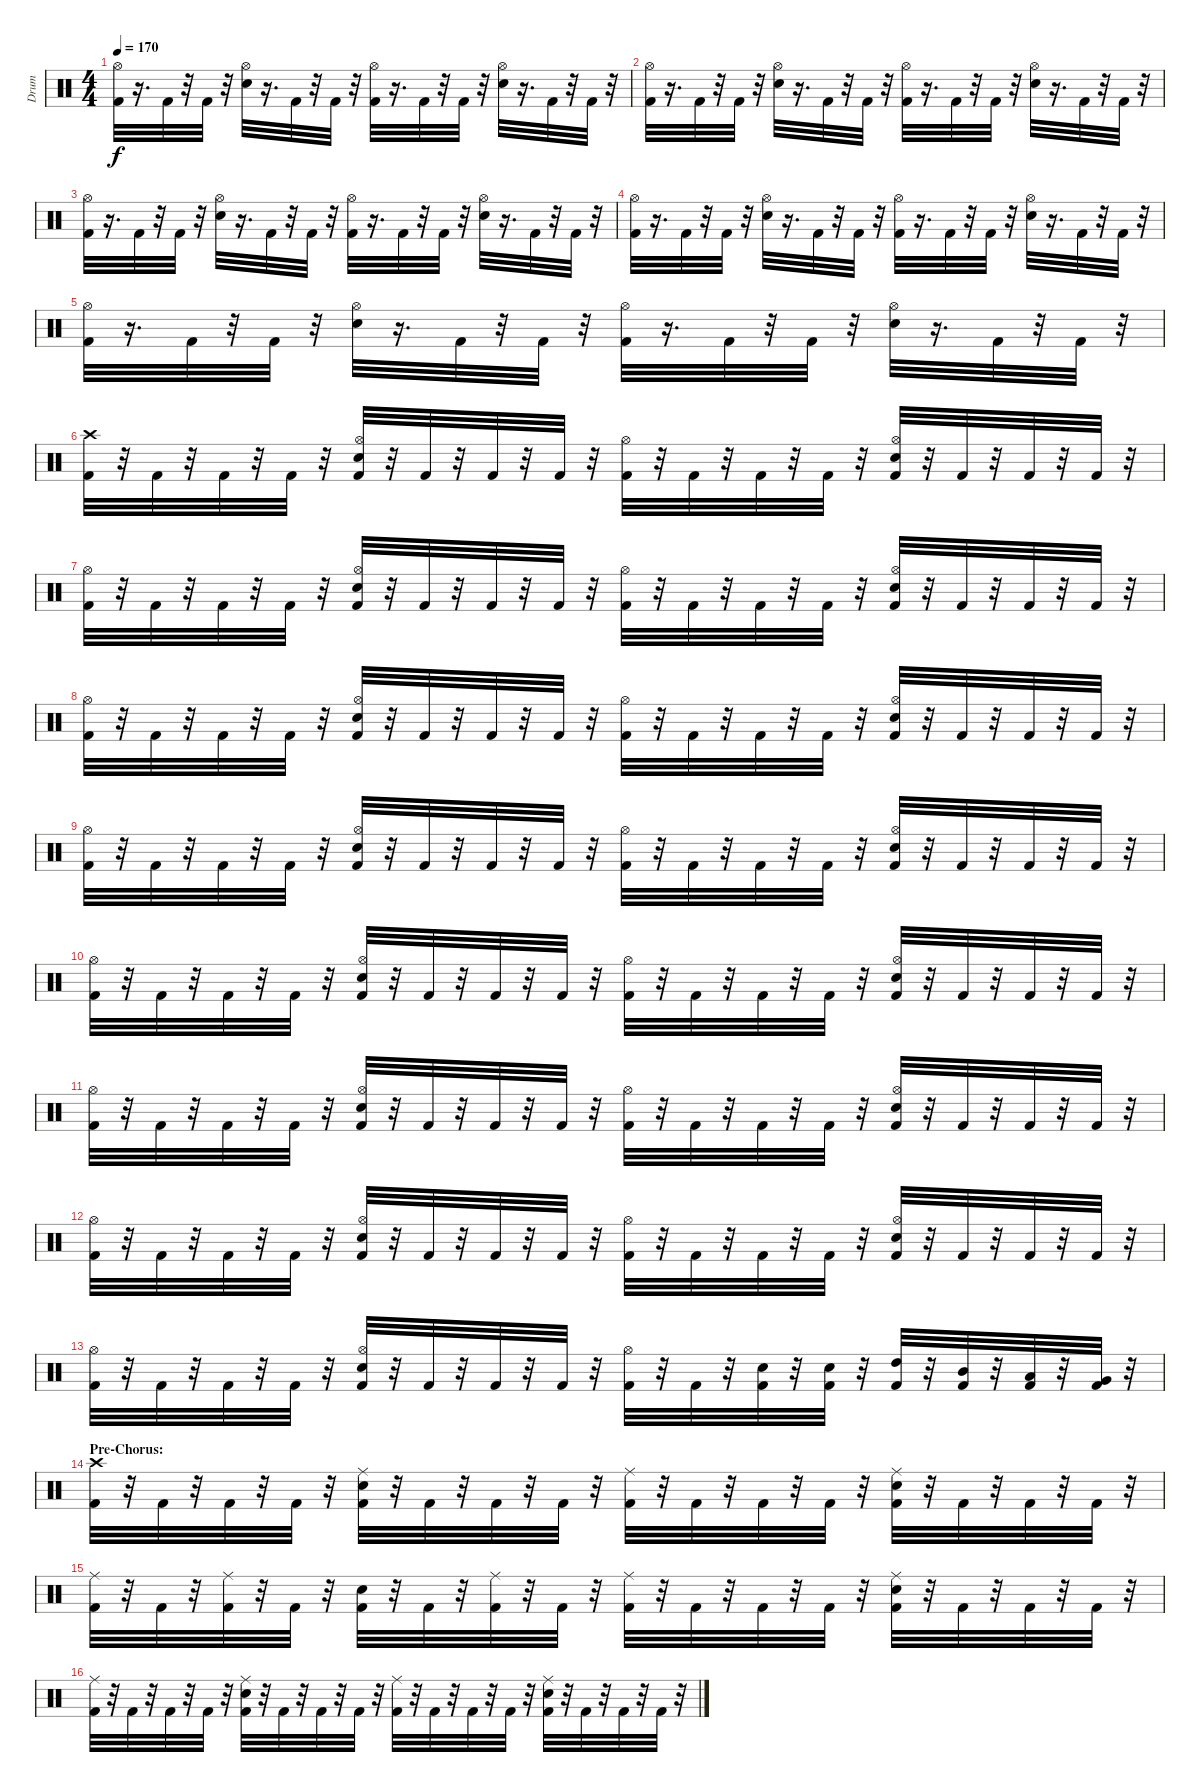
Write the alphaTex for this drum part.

\track ("Drum" "Drum") {instrument percussion}
\staff {score}
\articulation defaults
\ts (4 4)
\tempo 170
\clef neutral
\ks c
("Kick (hit) 2" "Hi-Hat (open)").32{dy f} r.16{d} "Kick (hit) 2".32 r.32 "Kick (hit) 2".32 r.32 ("Snare (hit) 2" "Hi-Hat (open)").32 r.16{d} "Kick (hit) 2".32 r.32 "Kick (hit) 2".32 r.32 ("Kick (hit) 2" "Hi-Hat (open)").32 r.16{d} "Kick (hit) 2".32 r.32 "Kick (hit) 2".32 r.32 ("Snare (hit) 2" "Hi-Hat (open)").32 r.16{d} "Kick (hit) 2".32 r.32 "Kick (hit) 2".32 r.32 |
("Hi-Hat (open)" "Kick (hit) 2").32 r.16{d} "Kick (hit) 2".32 r.32 "Kick (hit) 2".32 r.32 ("Snare (hit) 2" "Hi-Hat (open)").32 r.16{d} "Kick (hit) 2".32 r.32 "Kick (hit) 2".32 r.32 ("Kick (hit) 2" "Hi-Hat (open)").32 r.16{d} "Kick (hit) 2".32 r.32 "Kick (hit) 2".32 r.32 ("Snare (hit) 2" "Hi-Hat (open)").32 r.16{d} "Kick (hit) 2".32 r.32 "Kick (hit) 2".32 r.32 |
("Kick (hit) 2" "Hi-Hat (open)").32 r.16{d} "Kick (hit) 2".32 r.32 "Kick (hit) 2".32 r.32 ("Snare (hit) 2" "Hi-Hat (open)").32 r.16{d} "Kick (hit) 2".32 r.32 "Kick (hit) 2".32 r.32 ("Kick (hit) 2" "Hi-Hat (open)").32 r.16{d} "Kick (hit) 2".32 r.32 "Kick (hit) 2".32 r.32 ("Snare (hit) 2" "Hi-Hat (open)").32 r.16{d} "Kick (hit) 2".32 r.32 "Kick (hit) 2".32 r.32 |
("Hi-Hat (open)" "Kick (hit) 2").32 r.16{d} "Kick (hit) 2".32 r.32 "Kick (hit) 2".32 r.32 ("Snare (hit) 2" "Hi-Hat (open)").32 r.16{d} "Kick (hit) 2".32 r.32 "Kick (hit) 2".32 r.32 ("Kick (hit) 2" "Hi-Hat (open)").32 r.16{d} "Kick (hit) 2".32 r.32 "Kick (hit) 2".32 r.32 ("Snare (hit) 2" "Hi-Hat (open)").32 r.16{d} "Kick (hit) 2".32 r.32 "Kick (hit) 2".32 r.32 |
("Kick (hit) 2" "Hi-Hat (open)").32 r.16{d} "Kick (hit) 2".32 r.32 "Kick (hit) 2".32 r.32 ("Snare (hit) 2" "Hi-Hat (open)").32 r.16{d} "Kick (hit) 2".32 r.32 "Kick (hit) 2".32 r.32 ("Kick (hit) 2" "Hi-Hat (open)").32 r.16{d} "Kick (hit) 2".32 r.32 "Kick (hit) 2".32 r.32 ("Snare (hit) 2" "Hi-Hat (open)").32 r.16{d} "Kick (hit) 2".32 r.32 "Kick (hit) 2".32 r.32 |
("Crash high (hit)" "Kick (hit) 2").32 r.32 "Kick (hit) 2".32 r.32 "Kick (hit) 2".32 r.32 "Kick (hit) 2".32 r.32 ("Snare (hit) 2" "Hi-Hat (open)" "Kick (hit) 2").32 r.32 "Kick (hit) 2".32 r.32 "Kick (hit) 2".32 r.32 "Kick (hit) 2".32 r.32 ("Hi-Hat (open)" "Kick (hit) 2").32 r.32 "Kick (hit) 2".32 r.32 "Kick (hit) 2".32 r.32 "Kick (hit) 2".32 r.32 ("Snare (hit) 2" "Hi-Hat (open)" "Kick (hit) 2").32 r.32 "Kick (hit) 2".32 r.32 "Kick (hit) 2".32 r.32 "Kick (hit) 2".32 r.32 |
("Hi-Hat (open)" "Kick (hit) 2").32 r.32 "Kick (hit) 2".32 r.32 "Kick (hit) 2".32 r.32 "Kick (hit) 2".32 r.32 ("Snare (hit) 2" "Hi-Hat (open)" "Kick (hit) 2").32 r.32 "Kick (hit) 2".32 r.32 "Kick (hit) 2".32 r.32 "Kick (hit) 2".32 r.32 ("Hi-Hat (open)" "Kick (hit) 2").32 r.32 "Kick (hit) 2".32 r.32 "Kick (hit) 2".32 r.32 "Kick (hit) 2".32 r.32 ("Hi-Hat (open)" "Snare (hit) 2" "Kick (hit) 2").32 r.32 "Kick (hit) 2".32 r.32 "Kick (hit) 2".32 r.32 "Kick (hit) 2".32 r.32 |
("Hi-Hat (open)" "Kick (hit) 2").32 r.32 "Kick (hit) 2".32 r.32 "Kick (hit) 2".32 r.32 "Kick (hit) 2".32 r.32 ("Hi-Hat (open)" "Snare (hit) 2" "Kick (hit) 2").32 r.32 "Kick (hit) 2".32 r.32 "Kick (hit) 2".32 r.32 "Kick (hit) 2".32 r.32 ("Hi-Hat (open)" "Kick (hit) 2").32 r.32 "Kick (hit) 2".32 r.32 "Kick (hit) 2".32 r.32 "Kick (hit) 2".32 r.32 ("Hi-Hat (open)" "Snare (hit) 2" "Kick (hit) 2").32 r.32 "Kick (hit) 2".32 r.32 "Kick (hit) 2".32 r.32 "Kick (hit) 2".32 r.32 |
("Hi-Hat (open)" "Kick (hit) 2").32 r.32 "Kick (hit) 2".32 r.32 "Kick (hit) 2".32 r.32 "Kick (hit) 2".32 r.32 ("Hi-Hat (open)" "Snare (hit) 2" "Kick (hit) 2").32 r.32 "Kick (hit) 2".32 r.32 "Kick (hit) 2".32 r.32 "Kick (hit) 2".32 r.32 ("Hi-Hat (open)" "Kick (hit) 2").32 r.32 "Kick (hit) 2".32 r.32 "Kick (hit) 2".32 r.32 "Kick (hit) 2".32 r.32 ("Snare (hit) 2" "Hi-Hat (open)" "Kick (hit) 2").32 r.32 "Kick (hit) 2".32 r.32 "Kick (hit) 2".32 r.32 "Kick (hit) 2".32 r.32 |
("Hi-Hat (open)" "Kick (hit) 2").32 r.32 "Kick (hit) 2".32 r.32 "Kick (hit) 2".32 r.32 "Kick (hit) 2".32 r.32 ("Hi-Hat (open)" "Snare (hit) 2" "Kick (hit) 2").32 r.32 "Kick (hit) 2".32 r.32 "Kick (hit) 2".32 r.32 "Kick (hit) 2".32 r.32 ("Hi-Hat (open)" "Kick (hit) 2").32 r.32 "Kick (hit) 2".32 r.32 "Kick (hit) 2".32 r.32 "Kick (hit) 2".32 r.32 ("Hi-Hat (open)" "Snare (hit) 2" "Kick (hit) 2").32 r.32 "Kick (hit) 2".32 r.32 "Kick (hit) 2".32 r.32 "Kick (hit) 2".32 r.32 |
("Hi-Hat (open)" "Kick (hit) 2").32 r.32 "Kick (hit) 2".32 r.32 "Kick (hit) 2".32 r.32 "Kick (hit) 2".32 r.32 ("Hi-Hat (open)" "Snare (hit) 2" "Kick (hit) 2").32 r.32 "Kick (hit) 2".32 r.32 "Kick (hit) 2".32 r.32 "Kick (hit) 2".32 r.32 ("Hi-Hat (open)" "Kick (hit) 2").32 r.32 "Kick (hit) 2".32 r.32 "Kick (hit) 2".32 r.32 "Kick (hit) 2".32 r.32 ("Snare (hit) 2" "Hi-Hat (open)" "Kick (hit) 2").32 r.32 "Kick (hit) 2".32 r.32 "Kick (hit) 2".32 r.32 "Kick (hit) 2".32 r.32 |
("Hi-Hat (open)" "Kick (hit) 2").32 r.32 "Kick (hit) 2".32 r.32 "Kick (hit) 2".32 r.32 "Kick (hit) 2".32 r.32 ("Hi-Hat (open)" "Snare (hit) 2" "Kick (hit) 2").32 r.32 "Kick (hit) 2".32 r.32 "Kick (hit) 2".32 r.32 "Kick (hit) 2".32 r.32 ("Hi-Hat (open)" "Kick (hit) 2").32 r.32 "Kick (hit) 2".32 r.32 "Kick (hit) 2".32 r.32 "Kick (hit) 2".32 r.32 ("Hi-Hat (open)" "Snare (hit) 2" "Kick (hit) 2").32 r.32 "Kick (hit) 2".32 r.32 "Kick (hit) 2".32 r.32 "Kick (hit) 2".32 r.32 |
("Hi-Hat (open)" "Kick (hit) 2").32 r.32 "Kick (hit) 2".32 r.32 "Kick (hit) 2".32 r.32 "Kick (hit) 2".32 r.32 ("Hi-Hat (open)" "Snare (hit) 2" "Kick (hit) 2").32 r.32 "Kick (hit) 2".32 r.32 "Kick (hit) 2".32 r.32 "Kick (hit) 2".32 r.32 ("Hi-Hat (open)" "Kick (hit) 2").32 r.32 "Kick (hit) 2".32 r.32 ("Snare (hit) 2" "Kick (hit) 2").32 r.32 ("Snare (hit) 2" "Kick (hit) 2").32 r.32 ("High Tom (hit)" "Kick (hit) 2").32 r.32 ("Mid Tom (hit)" "Kick (hit) 2").32 r.32 ("Low Tom (hit)" "Kick (hit) 2").32 r.32 ("Very Low Tom (hit)" "Kick (hit) 2").32 r.32 |
\section ("" "Pre-Chorus:")
("Kick (hit) 2" "Crash high (hit)").32 r.32 "Kick (hit) 2".32 r.32 "Kick (hit) 2".32 r.32 "Kick (hit) 2".32 r.32 ("Ride (middle)" "Snare (hit) 2" "Kick (hit) 2").32 r.32 "Kick (hit) 2".32 r.32 "Kick (hit) 2".32 r.32 "Kick (hit) 2".32 r.32 ("Ride (middle)" "Kick (hit) 2").32 r.32 "Kick (hit) 2".32 r.32 "Kick (hit) 2".32 r.32 "Kick (hit) 2".32 r.32 ("Ride (middle)" "Snare (hit) 2" "Kick (hit) 2").32 r.32 "Kick (hit) 2".32 r.32 "Kick (hit) 2".32 r.32 "Kick (hit) 2".32 r.32 |
("Ride (middle)" "Kick (hit) 2").32 r.32 "Kick (hit) 2".32 r.32 ("Ride (middle)" "Kick (hit) 2").32 r.32 "Kick (hit) 2".32 r.32 ("Snare (hit) 2" "Kick (hit) 2").32 r.32 "Kick (hit) 2".32 r.32 ("Ride (middle)" "Kick (hit) 2").32 r.32 "Kick (hit) 2".32 r.32 ("Ride (middle)" "Kick (hit) 2").32 r.32 "Kick (hit) 2".32 r.32 "Kick (hit) 2".32 r.32 "Kick (hit) 2".32 r.32 ("Ride (middle)" "Snare (hit) 2" "Kick (hit) 2").32 r.32 "Kick (hit) 2".32 r.32 "Kick (hit) 2".32 r.32 "Kick (hit) 2".32 r.32 |
("Ride (middle)" "Kick (hit) 2").32 r.32 "Kick (hit) 2".32 r.32 "Kick (hit) 2".32 r.32 "Kick (hit) 2".32 r.32 ("Snare (hit) 2" "Ride (middle)" "Kick (hit) 2").32 r.32 "Kick (hit) 2".32 r.32 "Kick (hit) 2".32 r.32 "Kick (hit) 2".32 r.32 ("Ride (middle)" "Kick (hit) 2").32 r.32 "Kick (hit) 2".32 r.32 "Kick (hit) 2".32 r.32 "Kick (hit) 2".32 r.32 ("Snare (hit) 2" "Ride (middle)" "Kick (hit) 2").32 r.32 "Kick (hit) 2".32 r.32 "Kick (hit) 2".32 r.32 "Kick (hit) 2".32 r.32
